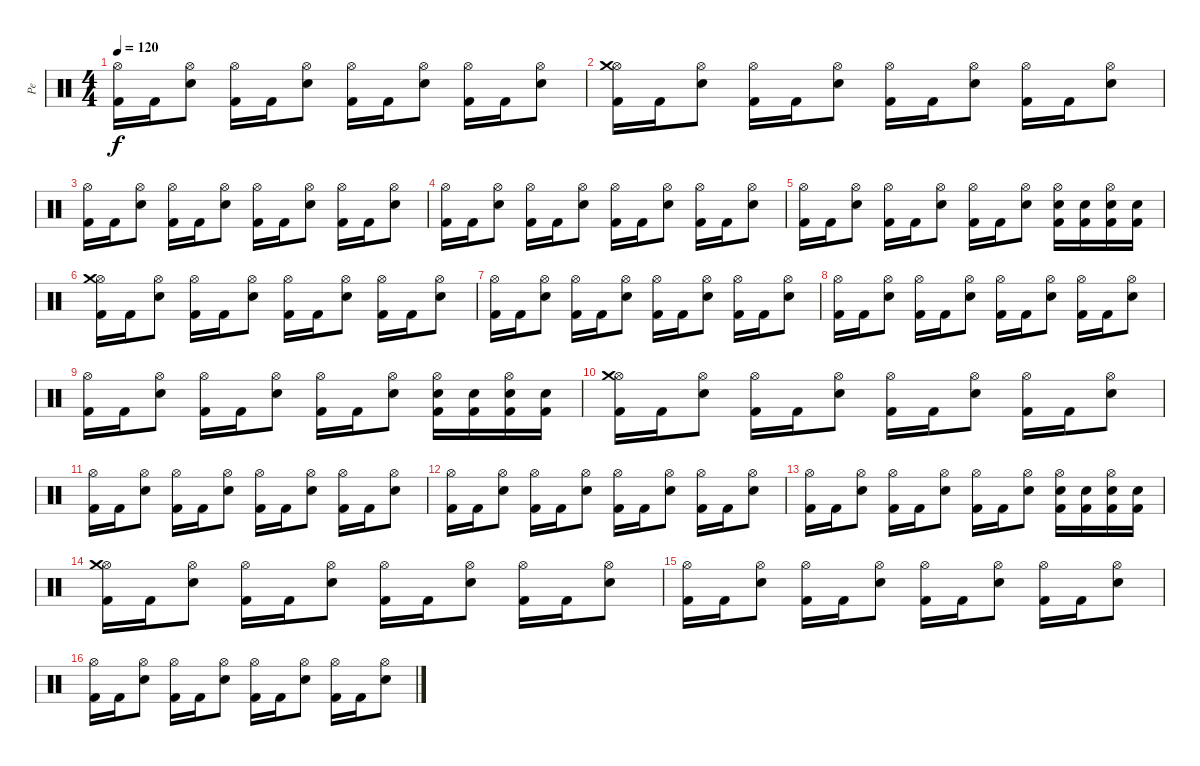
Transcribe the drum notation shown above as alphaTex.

\track ("Pe" "Pe") {instrument percussion}
\staff {score}
\articulation defaults
\ts (4 4)
\tempo 120
\clef neutral
\ks c
("Hi-Hat (open)" "Kick (hit) 2").16{dy f} "Kick (hit) 2".16 ("Hi-Hat (open)" "Electric Snare (hit)").8 ("Hi-Hat (open)" "Kick (hit) 2").16 "Kick (hit) 2".16 ("Hi-Hat (open)" "Electric Snare (hit)").8 ("Hi-Hat (open)" "Kick (hit) 2").16 "Kick (hit) 2".16 ("Hi-Hat (open)" "Electric Snare (hit)").8 ("Hi-Hat (open)" "Kick (hit) 2").16 "Kick (hit) 2".16 ("Hi-Hat (open)" "Electric Snare (hit)").8 |
("Hi-Hat (open)" "Crash medium (hit)" "Kick (hit) 2").16 "Kick (hit) 2".16 ("Hi-Hat (open)" "Electric Snare (hit)").8 ("Hi-Hat (open)" "Kick (hit) 2").16 "Kick (hit) 2".16 ("Hi-Hat (open)" "Electric Snare (hit)").8 ("Hi-Hat (open)" "Kick (hit) 2").16 "Kick (hit) 2".16 ("Hi-Hat (open)" "Electric Snare (hit)").8 ("Hi-Hat (open)" "Kick (hit) 2").16 "Kick (hit) 2".16 ("Hi-Hat (open)" "Electric Snare (hit)").8 |
("Hi-Hat (open)" "Kick (hit) 2").16 "Kick (hit) 2".16 ("Hi-Hat (open)" "Electric Snare (hit)").8 ("Hi-Hat (open)" "Kick (hit) 2").16 "Kick (hit) 2".16 ("Hi-Hat (open)" "Electric Snare (hit)").8 ("Hi-Hat (open)" "Kick (hit) 2").16 "Kick (hit) 2".16 ("Hi-Hat (open)" "Electric Snare (hit)").8 ("Hi-Hat (open)" "Kick (hit) 2").16 "Kick (hit) 2".16 ("Hi-Hat (open)" "Electric Snare (hit)").8 |
("Hi-Hat (open)" "Kick (hit) 2").16 "Kick (hit) 2".16 ("Hi-Hat (open)" "Electric Snare (hit)").8 ("Hi-Hat (open)" "Kick (hit) 2").16 "Kick (hit) 2".16 ("Hi-Hat (open)" "Electric Snare (hit)").8 ("Hi-Hat (open)" "Kick (hit) 2").16 "Kick (hit) 2".16 ("Hi-Hat (open)" "Electric Snare (hit)").8 ("Hi-Hat (open)" "Kick (hit) 2").16 "Kick (hit) 2".16 ("Hi-Hat (open)" "Electric Snare (hit)").8 |
("Hi-Hat (open)" "Kick (hit) 2").16 "Kick (hit) 2".16 ("Hi-Hat (open)" "Electric Snare (hit)").8 ("Hi-Hat (open)" "Kick (hit) 2").16 "Kick (hit) 2".16 ("Hi-Hat (open)" "Electric Snare (hit)").8 ("Hi-Hat (open)" "Kick (hit) 2").16 "Kick (hit) 2".16 ("Hi-Hat (open)" "Electric Snare (hit)").8 ("Hi-Hat (open)" "Electric Snare (hit)" "Kick (hit) 2").16 ("Electric Snare (hit)" "Kick (hit) 2").16 ("Hi-Hat (open)" "Electric Snare (hit)" "Kick (hit) 2").16 ("Electric Snare (hit)" "Kick (hit) 2").16 |
("Hi-Hat (open)" "Crash medium (hit)" "Kick (hit) 2").16 "Kick (hit) 2".16 ("Hi-Hat (open)" "Electric Snare (hit)").8 ("Hi-Hat (open)" "Kick (hit) 2").16 "Kick (hit) 2".16 ("Hi-Hat (open)" "Electric Snare (hit)").8 ("Hi-Hat (open)" "Kick (hit) 2").16 "Kick (hit) 2".16 ("Hi-Hat (open)" "Electric Snare (hit)").8 ("Hi-Hat (open)" "Kick (hit) 2").16 "Kick (hit) 2".16 ("Hi-Hat (open)" "Electric Snare (hit)").8 |
("Hi-Hat (open)" "Kick (hit) 2").16 "Kick (hit) 2".16 ("Hi-Hat (open)" "Electric Snare (hit)").8 ("Hi-Hat (open)" "Kick (hit) 2").16 "Kick (hit) 2".16 ("Hi-Hat (open)" "Electric Snare (hit)").8 ("Hi-Hat (open)" "Kick (hit) 2").16 "Kick (hit) 2".16 ("Hi-Hat (open)" "Electric Snare (hit)").8 ("Hi-Hat (open)" "Kick (hit) 2").16 "Kick (hit) 2".16 ("Hi-Hat (open)" "Electric Snare (hit)").8 |
("Hi-Hat (open)" "Kick (hit) 2").16 "Kick (hit) 2".16 ("Hi-Hat (open)" "Electric Snare (hit)").8 ("Hi-Hat (open)" "Kick (hit) 2").16 "Kick (hit) 2".16 ("Hi-Hat (open)" "Electric Snare (hit)").8 ("Hi-Hat (open)" "Kick (hit) 2").16 "Kick (hit) 2".16 ("Hi-Hat (open)" "Electric Snare (hit)").8 ("Hi-Hat (open)" "Kick (hit) 2").16 "Kick (hit) 2".16 ("Hi-Hat (open)" "Electric Snare (hit)").8 |
("Hi-Hat (open)" "Kick (hit) 2").16 "Kick (hit) 2".16 ("Hi-Hat (open)" "Electric Snare (hit)").8 ("Hi-Hat (open)" "Kick (hit) 2").16 "Kick (hit) 2".16 ("Hi-Hat (open)" "Electric Snare (hit)").8 ("Hi-Hat (open)" "Kick (hit) 2").16 "Kick (hit) 2".16 ("Hi-Hat (open)" "Electric Snare (hit)").8 ("Hi-Hat (open)" "Electric Snare (hit)" "Kick (hit) 2").16 ("Electric Snare (hit)" "Kick (hit) 2").16 ("Hi-Hat (open)" "Electric Snare (hit)" "Kick (hit) 2").16 ("Electric Snare (hit)" "Kick (hit) 2").16 |
("Hi-Hat (open)" "Crash medium (hit)" "Kick (hit) 2").16 "Kick (hit) 2".16 ("Hi-Hat (open)" "Electric Snare (hit)").8 ("Hi-Hat (open)" "Kick (hit) 2").16 "Kick (hit) 2".16 ("Hi-Hat (open)" "Electric Snare (hit)").8 ("Hi-Hat (open)" "Kick (hit) 2").16 "Kick (hit) 2".16 ("Hi-Hat (open)" "Electric Snare (hit)").8 ("Hi-Hat (open)" "Kick (hit) 2").16 "Kick (hit) 2".16 ("Hi-Hat (open)" "Electric Snare (hit)").8 |
("Hi-Hat (open)" "Kick (hit) 2").16 "Kick (hit) 2".16 ("Hi-Hat (open)" "Electric Snare (hit)").8 ("Hi-Hat (open)" "Kick (hit) 2").16 "Kick (hit) 2".16 ("Hi-Hat (open)" "Electric Snare (hit)").8 ("Hi-Hat (open)" "Kick (hit) 2").16 "Kick (hit) 2".16 ("Hi-Hat (open)" "Electric Snare (hit)").8 ("Hi-Hat (open)" "Kick (hit) 2").16 "Kick (hit) 2".16 ("Hi-Hat (open)" "Electric Snare (hit)").8 |
("Hi-Hat (open)" "Kick (hit) 2").16 "Kick (hit) 2".16 ("Hi-Hat (open)" "Electric Snare (hit)").8 ("Hi-Hat (open)" "Kick (hit) 2").16 "Kick (hit) 2".16 ("Hi-Hat (open)" "Electric Snare (hit)").8 ("Hi-Hat (open)" "Kick (hit) 2").16 "Kick (hit) 2".16 ("Hi-Hat (open)" "Electric Snare (hit)").8 ("Hi-Hat (open)" "Kick (hit) 2").16 "Kick (hit) 2".16 ("Hi-Hat (open)" "Electric Snare (hit)").8 |
("Hi-Hat (open)" "Kick (hit) 2").16 "Kick (hit) 2".16 ("Hi-Hat (open)" "Electric Snare (hit)").8 ("Hi-Hat (open)" "Kick (hit) 2").16 "Kick (hit) 2".16 ("Hi-Hat (open)" "Electric Snare (hit)").8 ("Hi-Hat (open)" "Kick (hit) 2").16 "Kick (hit) 2".16 ("Hi-Hat (open)" "Electric Snare (hit)").8 ("Hi-Hat (open)" "Electric Snare (hit)" "Kick (hit) 2").16 ("Electric Snare (hit)" "Kick (hit) 2").16 ("Hi-Hat (open)" "Electric Snare (hit)" "Kick (hit) 2").16 ("Electric Snare (hit)" "Kick (hit) 2").16 |
("Hi-Hat (open)" "Crash medium (hit)" "Kick (hit) 2").16 "Kick (hit) 2".16 ("Hi-Hat (open)" "Electric Snare (hit)").8 ("Hi-Hat (open)" "Kick (hit) 2").16 "Kick (hit) 2".16 ("Hi-Hat (open)" "Electric Snare (hit)").8 ("Hi-Hat (open)" "Kick (hit) 2").16 "Kick (hit) 2".16 ("Hi-Hat (open)" "Electric Snare (hit)").8 ("Hi-Hat (open)" "Kick (hit) 2").16 "Kick (hit) 2".16 ("Hi-Hat (open)" "Electric Snare (hit)").8 |
("Hi-Hat (open)" "Kick (hit) 2").16 "Kick (hit) 2".16 ("Hi-Hat (open)" "Electric Snare (hit)").8 ("Hi-Hat (open)" "Kick (hit) 2").16 "Kick (hit) 2".16 ("Hi-Hat (open)" "Electric Snare (hit)").8 ("Hi-Hat (open)" "Kick (hit) 2").16 "Kick (hit) 2".16 ("Hi-Hat (open)" "Electric Snare (hit)").8 ("Hi-Hat (open)" "Kick (hit) 2").16 "Kick (hit) 2".16 ("Hi-Hat (open)" "Electric Snare (hit)").8 |
("Hi-Hat (open)" "Kick (hit) 2").16 "Kick (hit) 2".16 ("Hi-Hat (open)" "Electric Snare (hit)").8 ("Hi-Hat (open)" "Kick (hit) 2").16 "Kick (hit) 2".16 ("Hi-Hat (open)" "Electric Snare (hit)").8 ("Hi-Hat (open)" "Kick (hit) 2").16 "Kick (hit) 2".16 ("Hi-Hat (open)" "Electric Snare (hit)").8 ("Hi-Hat (open)" "Kick (hit) 2").16 "Kick (hit) 2".16 ("Hi-Hat (open)" "Electric Snare (hit)").8
